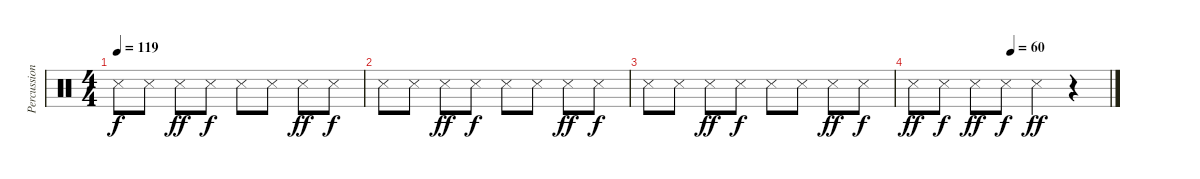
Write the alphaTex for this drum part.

\track ("Percussion" "Percussion") {instrument percussion}
\staff {score}
\articulation defaults
\ts (4 4)
\tempo 119
\clef neutral
\ks c "Snare (side stick) 3".8{dy f} "Snare (side stick) 3".8 "Snare (side stick) 3".8{dy ff} "Snare (side stick) 3".8{dy f} "Snare (side stick) 3".8 "Snare (side stick) 3".8 "Snare (side stick) 3".8{dy ff} "Snare (side stick) 3".8{dy f}
|
"Snare (side stick) 3".8 "Snare (side stick) 3".8 "Snare (side stick) 3".8{dy ff} "Snare (side stick) 3".8{dy f} "Snare (side stick) 3".8 "Snare (side stick) 3".8 "Snare (side stick) 3".8{dy ff} "Snare (side stick) 3".8{dy f} |
"Snare (side stick) 3".8 "Snare (side stick) 3".8 "Snare (side stick) 3".8{dy ff} "Snare (side stick) 3".8{dy f} "Snare (side stick) 3".8 "Snare (side stick) 3".8 "Snare (side stick) 3".8{dy ff} "Snare (side stick) 3".8{dy f} |
\tempo (60 0.5)
"Snare (side stick) 3".8{dy ff} "Snare (side stick) 3".8{dy f} "Snare (side stick) 3".8{dy ff} "Snare (side stick) 3".8{dy f} "Snare (side stick) 3".4{dy ff} r.4
